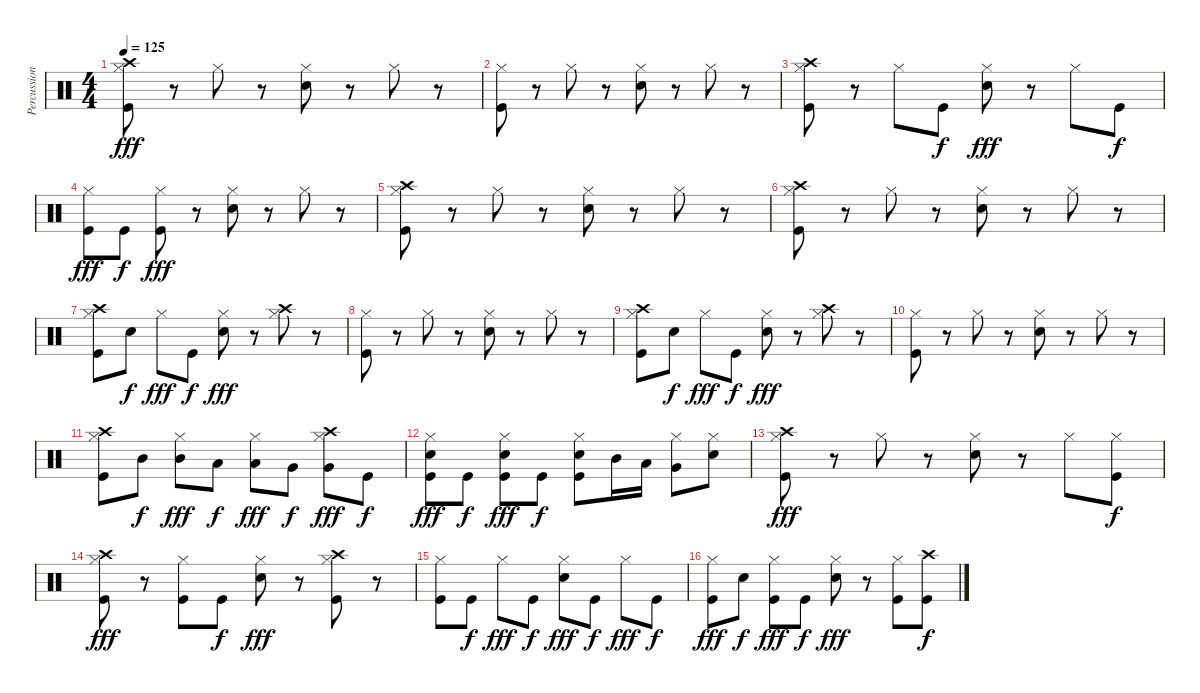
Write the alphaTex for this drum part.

\track ("Percussion" "Percussion") {instrument percussion}
\staff {score}
\articulation defaults
\ts (4 4)
\tempo 125
\clef neutral
\ks c
("Hi-Hat (closed)" "Crash high (hit)" "Kick (hit)").8{dy fff} r.8 "Hi-Hat (closed)".8 r.8 ("Hi-Hat (closed)" "Snare (hit) 2").8 r.8 "Hi-Hat (closed)".8 r.8 |
("Hi-Hat (closed)" "Kick (hit)").8 r.8 "Hi-Hat (closed)".8 r.8 ("Hi-Hat (closed)" "Snare (hit) 2").8 r.8 "Hi-Hat (closed)".8 r.8 |
("Hi-Hat (closed)" "Crash high (hit)" "Kick (hit)").8 r.8 "Hi-Hat (closed)".8 "Kick (hit)".8{dy f} ("Hi-Hat (closed)" "Snare (hit) 2").8{dy fff} r.8 "Hi-Hat (closed)".8 "Kick (hit)".8{dy f} |
("Hi-Hat (closed)" "Kick (hit)").8{dy fff} "Kick (hit)".8{dy f} ("Hi-Hat (closed)" "Kick (hit)").8{dy fff} r.8 ("Hi-Hat (closed)" "Snare (hit) 2").8 r.8 "Hi-Hat (closed)".8 r.8 |
("Hi-Hat (closed)" "Crash high (hit)" "Kick (hit)").8 r.8 "Hi-Hat (closed)".8 r.8 ("Hi-Hat (closed)" "Snare (hit) 2").8 r.8 "Hi-Hat (closed)".8 r.8 |
("Hi-Hat (closed)" "Crash high (hit)" "Kick (hit)").8 r.8 "Hi-Hat (closed)".8 r.8 ("Hi-Hat (closed)" "Snare (hit) 2").8 r.8 "Hi-Hat (closed)".8 r.8 |
("Hi-Hat (closed)" "Crash high (hit)" "Kick (hit)").8 "Snare (hit) 2".8{dy f} "Hi-Hat (closed)".8{dy fff} "Kick (hit)".8{dy f} ("Hi-Hat (closed)" "Snare (hit) 2").8{dy fff} r.8 ("Hi-Hat (closed)" "Crash high (hit)").8 r.8 |
("Hi-Hat (closed)" "Kick (hit)").8 r.8 "Hi-Hat (closed)".8 r.8 ("Hi-Hat (closed)" "Snare (hit) 2").8 r.8 "Hi-Hat (closed)".8 r.8 |
("Hi-Hat (closed)" "Crash high (hit)" "Kick (hit)").8 "Snare (hit) 2".8{dy f} "Hi-Hat (closed)".8{dy fff} "Kick (hit)".8{dy f} ("Hi-Hat (closed)" "Snare (hit) 2").8{dy fff} r.8 ("Hi-Hat (closed)" "Crash high (hit)").8 r.8 |
("Hi-Hat (closed)" "Kick (hit)").8 r.8 "Hi-Hat (closed)".8 r.8 ("Hi-Hat (closed)" "Snare (hit) 2").8 r.8 "Hi-Hat (closed)".8 r.8 |
("Hi-Hat (closed)" "Crash high (hit)" "Kick (hit)").8 "Mid Tom (hit)".8{dy f} ("Hi-Hat (closed)" "Mid Tom (hit)").8{dy fff} "Low Tom (hit)".8{dy f} ("Hi-Hat (closed)" "Low Tom (hit)").8{dy fff} "Very Low Tom (hit)".8{dy f} ("Hi-Hat (closed)" "Crash high (hit)" "Very Low Tom (hit)").8{dy fff} "Kick (hit)".8{dy f} |
("Hi-Hat (closed)" "Snare (hit) 2" "Kick (hit)").8{dy fff} "Kick (hit)".8{dy f} ("Hi-Hat (closed)" "Snare (hit) 2" "Kick (hit)").8{dy fff} "Kick (hit)".8{dy f} ("Hi-Hat (closed)" "Snare (hit) 2" "Kick (hit)").8 "Mid Tom (hit)".16 "Low Tom (hit)".16 ("Hi-Hat (closed)" "Very Low Tom (hit)").8 ("Hi-Hat (closed)" "Snare (hit) 2").8 |
("Hi-Hat (closed)" "Crash high (hit)" "Kick (hit)").8{dy fff} r.8 "Hi-Hat (closed)".8 r.8 ("Hi-Hat (closed)" "Snare (hit) 2").8 r.8 "Hi-Hat (closed)".8 ("Hi-Hat (closed)" "Kick (hit)").8{dy f} |
("Hi-Hat (closed)" "Crash high (hit)" "Kick (hit)").8{dy fff} r.8 ("Hi-Hat (closed)" "Kick (hit)").8 "Kick (hit)".8{dy f} ("Hi-Hat (closed)" "Snare (hit) 2").8{dy fff} r.8 ("Hi-Hat (closed)" "Crash high (hit)" "Kick (hit)").8 r.8 |
("Hi-Hat (closed)" "Kick (hit)").8 "Kick (hit)".8{dy f} "Hi-Hat (closed)".8{dy fff} "Kick (hit)".8{dy f} ("Hi-Hat (closed)" "Snare (hit) 2").8{dy fff} "Kick (hit)".8{dy f} "Hi-Hat (closed)".8{dy fff} "Kick (hit)".8{dy f} |
("Hi-Hat (closed)" "Kick (hit)").8{dy fff} "Snare (hit) 2".8{dy f} ("Hi-Hat (closed)" "Kick (hit)").8{dy fff} "Kick (hit)".8{dy f} ("Hi-Hat (closed)" "Snare (hit) 2").8{dy fff} r.8 ("Hi-Hat (closed)" "Kick (hit)").8 ("Crash high (hit)" "Kick (hit)").8{dy f}
